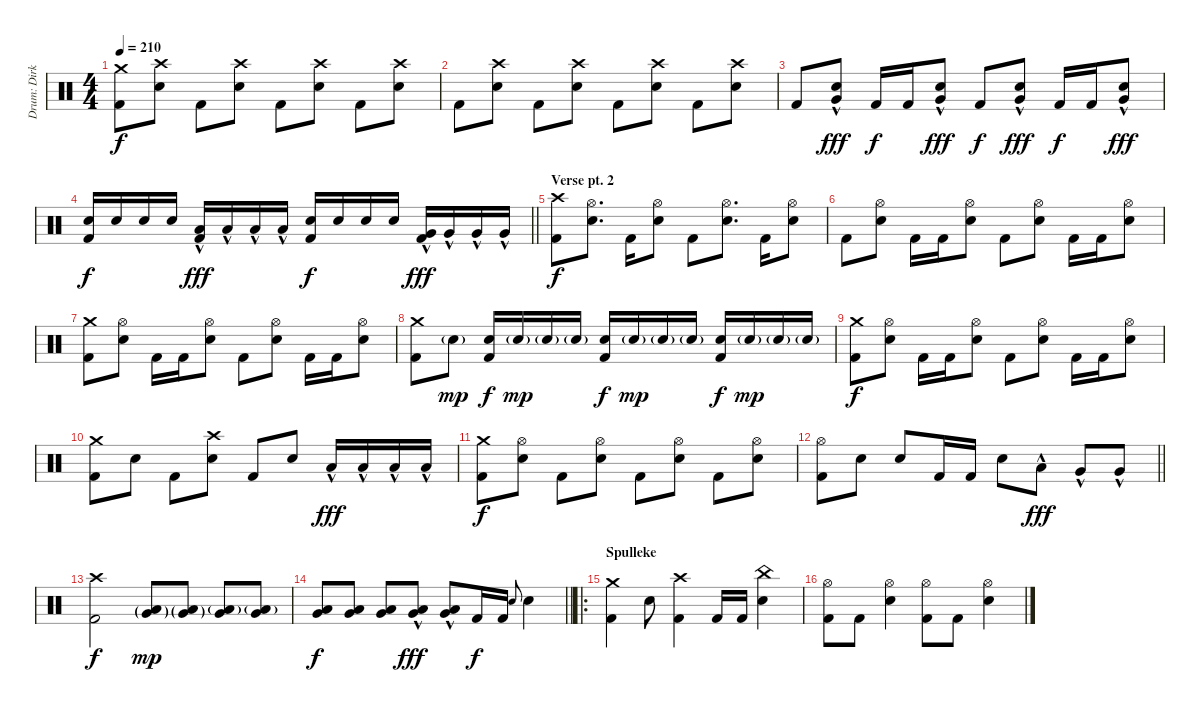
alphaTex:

\track ("Drum: Dirk" "Drum: Dirk") {instrument percussion}
\staff {score}
\articulation defaults
\ts (4 4)
\tempo 210
\clef neutral
\ks c
("Crash medium (hit)" "Kick (hit) 2").8{dy f} ("Crash high (hit)" "Electric Snare (hit)").8 "Kick (hit) 2".8 ("Crash high (hit)" "Electric Snare (hit)").8 "Kick (hit) 2".8 ("Crash high (hit)" "Electric Snare (hit)").8 "Kick (hit) 2".8 ("Crash high (hit)" "Electric Snare (hit)").8 |
"Kick (hit) 2".8 ("Crash high (hit)" "Electric Snare (hit)").8 "Kick (hit) 2".8 ("Crash high (hit)" "Electric Snare (hit)").8 "Kick (hit) 2".8 ("Crash high (hit)" "Electric Snare (hit)").8 "Kick (hit) 2".8 ("Crash high (hit)" "Electric Snare (hit)").8 |
"Kick (hit) 2".8 ("Very Low Tom (hit)"{hac} "Electric Snare (hit)").8{dy fff} "Kick (hit) 2".16{dy f} "Kick (hit) 2".16 ("Very Low Tom (hit)"{hac} "Electric Snare (hit)").8{dy fff} "Kick (hit) 2".8{dy f} ("Very Low Tom (hit)"{hac} "Electric Snare (hit)").8{dy fff} "Kick (hit) 2".16{dy f} "Kick (hit) 2".16 ("Very Low Tom (hit)"{hac} "Electric Snare (hit)").8{dy fff} |
\barLineRight lightlight
("Electric Snare (hit)" "Kick (hit) 2").16{dy f} "Electric Snare (hit)".16 "Electric Snare (hit)".16 "Electric Snare (hit)".16 ("Low Tom (hit)"{hac} "Kick (hit) 2").16{dy fff} "Low Tom (hit)"{hac}.16 "Low Tom (hit)"{hac}.16 "Low Tom (hit)"{hac}.16 ("Electric Snare (hit)" "Kick (hit) 2").16{dy f} "Electric Snare (hit)".16 "Electric Snare (hit)".16 "Electric Snare (hit)".16 ("Very Low Tom (hit)"{hac} "Kick (hit) 2").16{dy fff} "Very Low Tom (hit)"{hac}.16 "Very Low Tom (hit)"{hac}.16 "Very Low Tom (hit)"{hac}.16 |
\section ("" "Verse pt. 2")
("Crash high (hit)" "Kick (hit) 2").8{dy f} ("Hi-Hat (open)" "Electric Snare (hit)").8{d} "Kick (hit) 2".16 ("Hi-Hat (open)" "Electric Snare (hit)").8 "Kick (hit) 2".8 ("Hi-Hat (open)" "Electric Snare (hit)").8{d} "Kick (hit) 2".16 ("Hi-Hat (open)" "Electric Snare (hit)").8 |
"Kick (hit) 2".8 ("Hi-Hat (open)" "Electric Snare (hit)").8 "Kick (hit) 2".16 "Kick (hit) 2".16 ("Hi-Hat (open)" "Electric Snare (hit)").8 "Kick (hit) 2".8 ("Hi-Hat (open)" "Electric Snare (hit)").8 "Kick (hit) 2".16 "Kick (hit) 2".16 ("Hi-Hat (open)" "Electric Snare (hit)").8 |
("Crash medium (hit)" "Kick (hit) 2").8 ("Hi-Hat (open)" "Electric Snare (hit)").8 "Kick (hit) 2".16 "Kick (hit) 2".16 ("Hi-Hat (open)" "Electric Snare (hit)").8 "Kick (hit) 2".8 ("Hi-Hat (open)" "Electric Snare (hit)").8 "Kick (hit) 2".16 "Kick (hit) 2".16 ("Hi-Hat (open)" "Electric Snare (hit)").8 |
("Crash medium (hit)" "Kick (hit) 2").8 "Electric Snare (hit)"{g}.8{dy mp} ("Electric Snare (hit)" "Kick (hit) 2").16{dy f} "Electric Snare (hit)"{g}.16{dy mp} "Electric Snare (hit)"{g}.16 "Electric Snare (hit)"{g}.16 ("Electric Snare (hit)" "Kick (hit) 2").16{dy f} "Electric Snare (hit)"{g}.16{dy mp} "Electric Snare (hit)"{g}.16 "Electric Snare (hit)"{g}.16 ("Electric Snare (hit)" "Kick (hit) 2").16{dy f} "Electric Snare (hit)"{g}.16{dy mp} "Electric Snare (hit)"{g}.16 "Electric Snare (hit)"{g}.16 |
("Crash medium (hit)" "Kick (hit) 2").8{dy f} ("Hi-Hat (open)" "Electric Snare (hit)").8 "Kick (hit) 2".16 "Kick (hit) 2".16 ("Hi-Hat (open)" "Electric Snare (hit)").8 "Kick (hit) 2".8 ("Hi-Hat (open)" "Electric Snare (hit)").8 "Kick (hit) 2".16 "Kick (hit) 2".16 ("Hi-Hat (open)" "Electric Snare (hit)").8 |
("Crash medium (hit)" "Kick (hit) 2").8 "Electric Snare (hit)".8 "Kick (hit) 2".8 ("Crash high (hit)" "Electric Snare (hit)").8 "Kick (hit) 2".8 "Electric Snare (hit)".8 "Low Tom (hit)"{hac}.16{dy fff} "Low Tom (hit)"{hac}.16 "Low Tom (hit)"{hac}.16 "Low Tom (hit)"{hac}.16 |
("Crash medium (hit)" "Kick (hit) 2").8{dy f} ("Hi-Hat (open)" "Electric Snare (hit)").8 "Kick (hit) 2".8 ("Hi-Hat (open)" "Electric Snare (hit)").8 "Kick (hit) 2".8 ("Hi-Hat (open)" "Electric Snare (hit)").8 "Kick (hit) 2".8 ("Hi-Hat (open)" "Electric Snare (hit)").8 |
\barLineRight lightlight
("Hi-Hat (open)" "Kick (hit) 2").8 "Electric Snare (hit)".8 "Electric Snare (hit)".8 "Kick (hit) 2".16 "Kick (hit) 2".16 "Electric Snare (hit)".8 "Low Tom (hit)"{hac}.8{dy fff} "Very Low Tom (hit)"{hac}.8 "Very Low Tom (hit)"{hac}.8 |
\section ("" "")
("Crash high (hit)" "Kick (hit) 2").2{dy f} ("Low Tom (hit)"{g} "Very Low Tom (hit)"{g}).8{dy mp} ("Low Tom (hit)"{g} "Very Low Tom (hit)"{g}).8 ("Low Tom (hit)"{g} "Very Low Tom (hit)").8 ("Low Tom (hit)"{g} "Very Low Tom (hit)").8 |
\barLineRight lightlight
("Low Tom (hit)" "Very Low Tom (hit)").8{dy f} ("Low Tom (hit)" "Very Low Tom (hit)").8 ("Low Tom (hit)" "Very Low Tom (hit)").8 ("Low Tom (hit)"{hac} "Very Low Tom (hit)"{hac}).8{dy fff} ("Low Tom (hit)"{hac} "Very Low Tom (hit)"{hac}).8 "Kick (hit) 2".16{dy f} "Kick (hit) 2".16 "Electric Snare (hit)".8{gr onbeat} "Electric Snare (hit)".4 |
\ro
\section ("" "Spulleke")
("Crash medium (hit)" "Kick (hit) 2").4 "Electric Snare (hit)".8 ("Crash high (hit)" "Kick (hit) 2").4 "Kick (hit) 2".16 "Kick (hit) 2".16 ("China (hit)" "Electric Snare (hit)").4 |
("Hi-Hat (open)" "Kick (hit) 2").8 "Kick (hit) 2".8 ("Hi-Hat (open)" "Electric Snare (hit)").4 ("Hi-Hat (open)" "Kick (hit) 2").8 "Kick (hit) 2".8 ("Hi-Hat (open)" "Electric Snare (hit)").4
